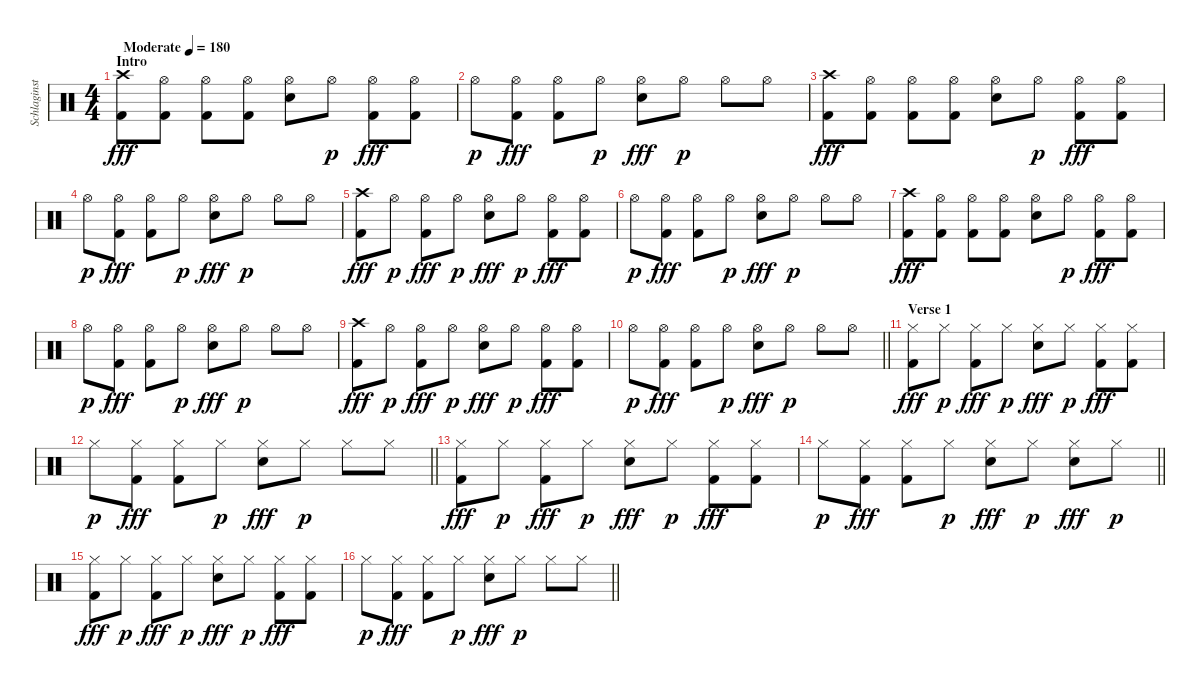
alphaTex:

\track ("Schlaginstrumente - Auswahl" "Schlaginst") {instrument percussion}
\staff {score}
\articulation defaults
\ts (4 4)
\section ("" "Intro")
\tempo (180 "Moderate")
\clef neutral
\ks c
("Crash high (hit)" "Kick (hit) 2").8{dy fff} ("Hi-Hat (open)" "Kick (hit) 2").8 ("Hi-Hat (open)" "Kick (hit) 2").8 ("Hi-Hat (open)" "Kick (hit) 2").8 ("Hi-Hat (open)" "Snare (hit) 2").8 "Hi-Hat (open)".8{dy p} ("Hi-Hat (open)" "Kick (hit) 2").8{dy fff} ("Hi-Hat (open)" "Kick (hit) 2").8 |
"Hi-Hat (open)".8{dy p} ("Hi-Hat (open)" "Kick (hit) 2").8{dy fff} ("Hi-Hat (open)" "Kick (hit) 2").8 "Hi-Hat (open)".8{dy p} ("Hi-Hat (open)" "Snare (hit) 2").8{dy fff} "Hi-Hat (open)".8{dy p} "Hi-Hat (open)".8 "Hi-Hat (open)".8 |
("Crash high (hit)" "Kick (hit) 2").8{dy fff} ("Hi-Hat (open)" "Kick (hit) 2").8 ("Hi-Hat (open)" "Kick (hit) 2").8 ("Hi-Hat (open)" "Kick (hit) 2").8 ("Hi-Hat (open)" "Snare (hit) 2").8 "Hi-Hat (open)".8{dy p} ("Hi-Hat (open)" "Kick (hit) 2").8{dy fff} ("Hi-Hat (open)" "Kick (hit) 2").8 |
"Hi-Hat (open)".8{dy p} ("Hi-Hat (open)" "Kick (hit) 2").8{dy fff} ("Hi-Hat (open)" "Kick (hit) 2").8 "Hi-Hat (open)".8{dy p} ("Hi-Hat (open)" "Snare (hit) 2").8{dy fff} "Hi-Hat (open)".8{dy p} "Hi-Hat (open)".8 "Hi-Hat (open)".8 |
("Crash high (hit)" "Kick (hit) 2").8{dy fff} "Hi-Hat (open)".8{dy p} ("Hi-Hat (open)" "Kick (hit) 2").8{dy fff} "Hi-Hat (open)".8{dy p} ("Hi-Hat (open)" "Snare (hit) 2").8{dy fff} "Hi-Hat (open)".8{dy p} ("Hi-Hat (open)" "Kick (hit) 2").8{dy fff} ("Hi-Hat (open)" "Kick (hit) 2").8 |
"Hi-Hat (open)".8{dy p} ("Hi-Hat (open)" "Kick (hit) 2").8{dy fff} ("Hi-Hat (open)" "Kick (hit) 2").8 "Hi-Hat (open)".8{dy p} ("Hi-Hat (open)" "Snare (hit) 2").8{dy fff} "Hi-Hat (open)".8{dy p} "Hi-Hat (open)".8 "Hi-Hat (open)".8 |
("Crash high (hit)" "Kick (hit) 2").8{dy fff} ("Hi-Hat (open)" "Kick (hit) 2").8 ("Hi-Hat (open)" "Kick (hit) 2").8 ("Hi-Hat (open)" "Kick (hit) 2").8 ("Hi-Hat (open)" "Snare (hit) 2").8 "Hi-Hat (open)".8{dy p} ("Hi-Hat (open)" "Kick (hit) 2").8{dy fff} ("Hi-Hat (open)" "Kick (hit) 2").8 |
"Hi-Hat (open)".8{dy p} ("Hi-Hat (open)" "Kick (hit) 2").8{dy fff} ("Hi-Hat (open)" "Kick (hit) 2").8 "Hi-Hat (open)".8{dy p} ("Hi-Hat (open)" "Snare (hit) 2").8{dy fff} "Hi-Hat (open)".8{dy p} "Hi-Hat (open)".8 "Hi-Hat (open)".8 |
("Crash high (hit)" "Kick (hit) 2").8{dy fff} "Hi-Hat (open)".8{dy p} ("Hi-Hat (open)" "Kick (hit) 2").8{dy fff} "Hi-Hat (open)".8{dy p} ("Hi-Hat (open)" "Snare (hit) 2").8{dy fff} "Hi-Hat (open)".8{dy p} ("Hi-Hat (open)" "Kick (hit) 2").8{dy fff} ("Hi-Hat (open)" "Kick (hit) 2").8 |
\barLineRight lightlight "Hi-Hat (open)".8{dy p}
("Hi-Hat (open)" "Kick (hit) 2").8{dy fff} ("Hi-Hat (open)" "Kick (hit) 2").8 "Hi-Hat (open)".8{dy p} ("Hi-Hat (open)" "Snare (hit) 2").8{dy fff} "Hi-Hat (open)".8{dy p} "Hi-Hat (open)".8 "Hi-Hat (open)".8 |
\section ("" "Verse 1")
("Hi-Hat (closed)" "Kick (hit) 2").8{dy fff} "Hi-Hat (closed)".8{dy p} ("Hi-Hat (closed)" "Kick (hit) 2").8{dy fff} "Hi-Hat (closed)".8{dy p} ("Hi-Hat (closed)" "Snare (hit) 2").8{dy fff} "Hi-Hat (closed)".8{dy p} ("Hi-Hat (closed)" "Kick (hit) 2").8{dy fff} ("Hi-Hat (closed)" "Kick (hit) 2").8 |
\barLineRight lightlight "Hi-Hat (closed)".8{dy p}
("Hi-Hat (closed)" "Kick (hit) 2").8{dy fff} ("Hi-Hat (closed)" "Kick (hit) 2").8 "Hi-Hat (closed)".8{dy p} ("Hi-Hat (closed)" "Snare (hit) 2").8{dy fff} "Hi-Hat (closed)".8{dy p} "Hi-Hat (closed)".8 "Hi-Hat (closed)".8 |
("Hi-Hat (closed)" "Kick (hit) 2").8{dy fff} "Hi-Hat (closed)".8{dy p} ("Hi-Hat (closed)" "Kick (hit) 2").8{dy fff} "Hi-Hat (closed)".8{dy p} ("Hi-Hat (closed)" "Snare (hit) 2").8{dy fff} "Hi-Hat (closed)".8{dy p} ("Hi-Hat (closed)" "Kick (hit) 2").8{dy fff} ("Hi-Hat (closed)" "Kick (hit) 2").8 |
\barLineRight lightlight "Hi-Hat (closed)".8{dy p}
("Hi-Hat (closed)" "Kick (hit) 2").8{dy fff} ("Hi-Hat (closed)" "Kick (hit) 2").8 "Hi-Hat (closed)".8{dy p} ("Hi-Hat (closed)" "Snare (hit) 2").8{dy fff} "Hi-Hat (closed)".8{dy p} ("Hi-Hat (closed)" "Snare (hit) 2").8{dy fff} "Hi-Hat (closed)".8{dy p} |
("Hi-Hat (closed)" "Kick (hit) 2").8{dy fff} "Hi-Hat (closed)".8{dy p} ("Hi-Hat (closed)" "Kick (hit) 2").8{dy fff} "Hi-Hat (closed)".8{dy p} ("Hi-Hat (closed)" "Snare (hit) 2").8{dy fff} "Hi-Hat (closed)".8{dy p} ("Hi-Hat (closed)" "Kick (hit) 2").8{dy fff} ("Hi-Hat (closed)" "Kick (hit) 2").8 |
\barLineRight lightlight "Hi-Hat (closed)".8{dy p}
("Hi-Hat (closed)" "Kick (hit) 2").8{dy fff} ("Hi-Hat (closed)" "Kick (hit) 2").8 "Hi-Hat (closed)".8{dy p} ("Hi-Hat (closed)" "Snare (hit) 2").8{dy fff} "Hi-Hat (closed)".8{dy p} "Hi-Hat (closed)".8 "Hi-Hat (closed)".8
